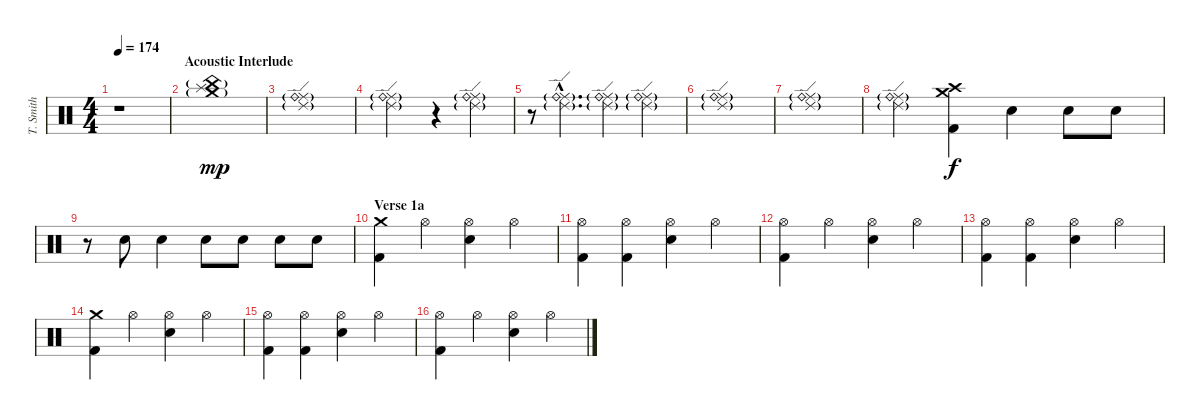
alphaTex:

\track ("T. Smith" "T. Smith") {instrument percussion}
\staff {score}
\articulation defaults
\ts (4 4)
\tempo 174
\clef neutral
\ks c
r.1{dy f} |
\section ("" "Acoustic Interlude")
("Crash medium (hit)"{g} "Splash (hit)" "China (hit)"{g}).1{dy mp} |
("Ride (middle)"{g} "Ride (bell)" "Ride (edge) 2"{g}).1 |
("Ride (middle)"{g} "Ride (bell)" "Ride (edge) 2"{g}).2 r.4 ("Ride (middle)"{g} "Ride (bell)" "Ride (edge) 2"{g}).4 |
r.8 ("Ride (middle)"{g hac} "Ride (bell)"{hac} "Ride (edge) 2"{g hac}).4{d} ("Ride (middle)"{g} "Ride (bell)" "Ride (edge) 2"{g}).4 ("Ride (middle)"{g} "Ride (bell)" "Ride (edge) 2"{g}).4 |
("Ride (middle)"{g} "Ride (bell)" "Ride (edge) 2"{g}).1 |
("Ride (middle)"{g} "Ride (bell)" "Ride (edge) 2"{g}).1 |
("Ride (middle)"{g} "Ride (bell)" "Ride (edge) 2"{g}).4 ("Crash medium (hit)" "Crash high (hit)" "Kick (hit) 2").4{dy f} "Electric Snare (hit)".4 "Electric Snare (hit)".8 "Electric Snare (hit)".8 |
r.8 "Electric Snare (hit)".8 "Electric Snare (hit)".4 "Electric Snare (hit)".8 "Electric Snare (hit)".8 "Electric Snare (hit)".8 "Electric Snare (hit)".8 |
\section ("" "Verse 1a")
("Crash medium (hit)" "Kick (hit) 2").4 "Hi-Hat (open)".4 ("Hi-Hat (open)" "Electric Snare (hit)").4 "Hi-Hat (open)".4 |
("Hi-Hat (open)" "Kick (hit) 2").4 ("Hi-Hat (open)" "Kick (hit) 2").4 ("Hi-Hat (open)" "Electric Snare (hit)").4 "Hi-Hat (open)".4 |
("Hi-Hat (open)" "Kick (hit) 2").4 "Hi-Hat (open)".4 ("Hi-Hat (open)" "Electric Snare (hit)").4 "Hi-Hat (open)".4 |
("Hi-Hat (open)" "Kick (hit) 2").4 ("Hi-Hat (open)" "Kick (hit) 2").4 ("Hi-Hat (open)" "Electric Snare (hit)").4 "Hi-Hat (open)".4 |
("Crash medium (hit)" "Kick (hit) 2").4 "Hi-Hat (open)".4 ("Hi-Hat (open)" "Electric Snare (hit)").4 "Hi-Hat (open)".4 |
("Hi-Hat (open)" "Kick (hit) 2").4 ("Hi-Hat (open)" "Kick (hit) 2").4 ("Hi-Hat (open)" "Electric Snare (hit)").4 "Hi-Hat (open)".4 |
("Hi-Hat (open)" "Kick (hit) 2").4 "Hi-Hat (open)".4 ("Hi-Hat (open)" "Electric Snare (hit)").4 "Hi-Hat (open)".4
